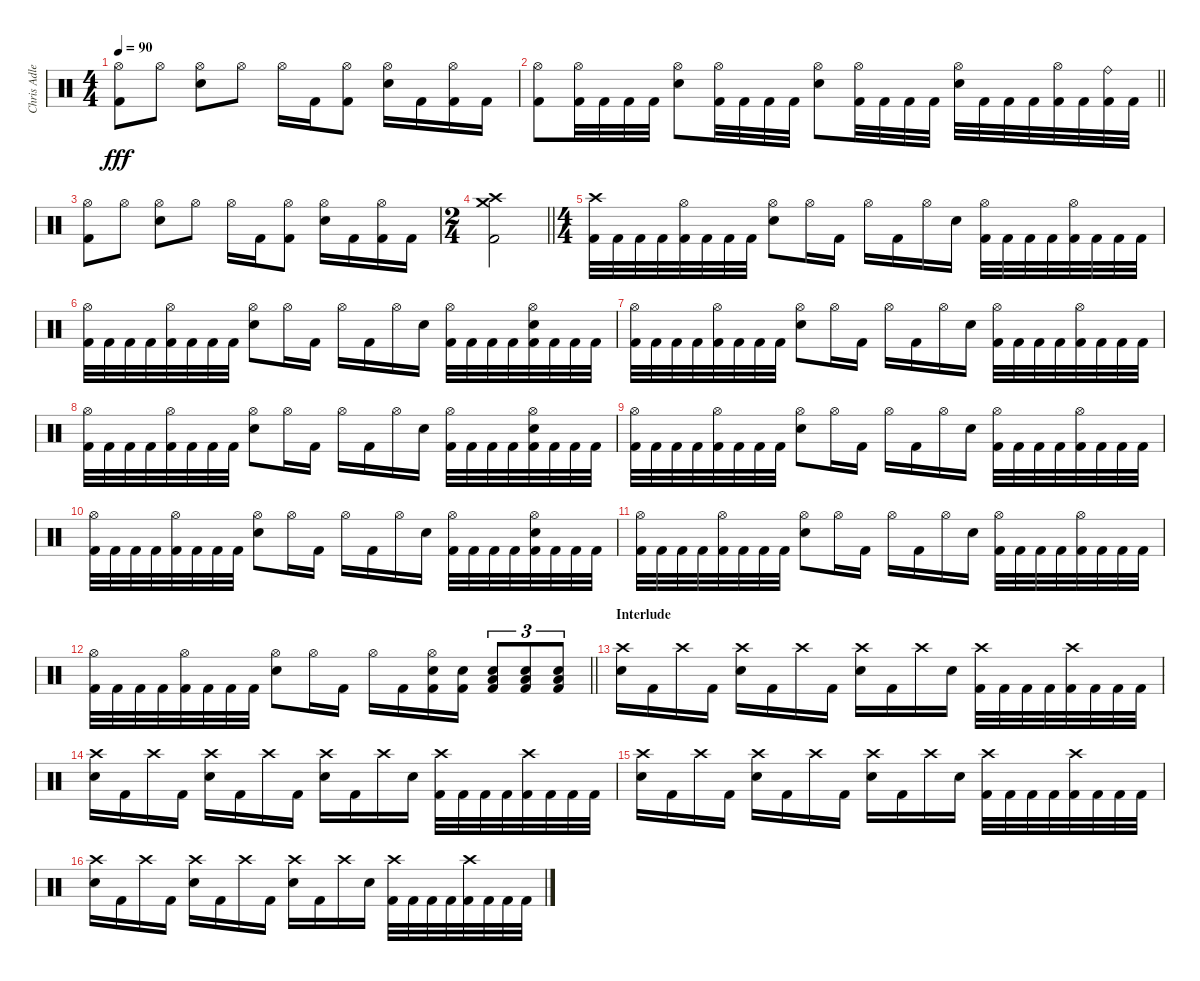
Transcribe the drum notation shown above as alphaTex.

\track ("Chris Adler" "Chris Adle") {instrument percussion}
\staff {score}
\articulation defaults
\ts (4 4)
\tempo 90
\clef neutral
\ks c
("Hi-Hat (open)" "Kick (hit) 2").8{dy fff} "Hi-Hat (open)".8 ("Hi-Hat (open)" "Electric Snare (hit)").8 "Hi-Hat (open)".8 "Hi-Hat (open)".16 "Kick (hit) 2".16 ("Hi-Hat (open)" "Kick (hit) 2").8 ("Hi-Hat (open)" "Electric Snare (hit)").16 "Kick (hit) 2".16 ("Hi-Hat (open)" "Kick (hit) 2").16 "Kick (hit) 2".16 |
\barLineRight lightlight
("Hi-Hat (open)" "Kick (hit) 2").8 ("Hi-Hat (open)" "Kick (hit) 2").32 "Kick (hit) 2".32 "Kick (hit) 2".32 "Kick (hit) 2".32 ("Hi-Hat (open)" "Electric Snare (hit)").8 ("Hi-Hat (open)" "Kick (hit) 2").32 "Kick (hit) 2".32 "Kick (hit) 2".32 "Kick (hit) 2".32 ("Hi-Hat (open)" "Electric Snare (hit)").8 ("Hi-Hat (open)" "Kick (hit) 2").32 "Kick (hit) 2".32 "Kick (hit) 2".32 "Kick (hit) 2".32 ("Hi-Hat (open)" "Electric Snare (hit)").32 "Kick (hit) 2".32 "Kick (hit) 2".32 "Kick (hit) 2".32 ("Hi-Hat (open)" "Kick (hit) 2").32 "Kick (hit) 2".32 ("Ride (bell)" "Kick (hit) 2").32 "Kick (hit) 2".32 |
("Hi-Hat (open)" "Kick (hit) 2").8 "Hi-Hat (open)".8 ("Hi-Hat (open)" "Electric Snare (hit)").8 "Hi-Hat (open)".8 "Hi-Hat (open)".16 "Kick (hit) 2".16 ("Hi-Hat (open)" "Kick (hit) 2").8 ("Hi-Hat (open)" "Electric Snare (hit)").16 "Kick (hit) 2".16 ("Hi-Hat (open)" "Kick (hit) 2").16 "Kick (hit) 2".16 |
\ts (2 4)
\barLineRight lightlight
("Crash medium (hit)" "Crash high (hit)" "Kick (hit) 2").2 |
\ts (4 4)
("Crash high (hit)" "Kick (hit) 2").32 "Kick (hit) 2".32 "Kick (hit) 2".32 "Kick (hit) 2".32 ("Hi-Hat (open)" "Kick (hit) 2").32 "Kick (hit) 2".32 "Kick (hit) 2".32 "Kick (hit) 2".32 ("Hi-Hat (open)" "Electric Snare (hit)").8 "Hi-Hat (open)".16 "Kick (hit) 2".16 "Hi-Hat (open)".16 "Kick (hit) 2".16 "Hi-Hat (open)".16 "Electric Snare (hit)".16 ("Hi-Hat (open)" "Kick (hit) 2").32 "Kick (hit) 2".32 "Kick (hit) 2".32 "Kick (hit) 2".32 ("Hi-Hat (open)" "Kick (hit) 2").32 "Kick (hit) 2".32 "Kick (hit) 2".32 "Kick (hit) 2".32 |
("Hi-Hat (open)" "Kick (hit) 2").32 "Kick (hit) 2".32 "Kick (hit) 2".32 "Kick (hit) 2".32 ("Hi-Hat (open)" "Kick (hit) 2").32 "Kick (hit) 2".32 "Kick (hit) 2".32 "Kick (hit) 2".32 ("Hi-Hat (open)" "Electric Snare (hit)").8 "Hi-Hat (open)".16 "Kick (hit) 2".16 "Hi-Hat (open)".16 "Kick (hit) 2".16 "Hi-Hat (open)".16 "Electric Snare (hit)".16 ("Hi-Hat (open)" "Kick (hit) 2").32 "Kick (hit) 2".32 "Kick (hit) 2".32 "Kick (hit) 2".32 ("Hi-Hat (open)" "Electric Snare (hit)" "Kick (hit) 2").32 "Kick (hit) 2".32 "Kick (hit) 2".32 "Kick (hit) 2".32 |
("Hi-Hat (open)" "Kick (hit) 2").32 "Kick (hit) 2".32 "Kick (hit) 2".32 "Kick (hit) 2".32 ("Hi-Hat (open)" "Kick (hit) 2").32 "Kick (hit) 2".32 "Kick (hit) 2".32 "Kick (hit) 2".32 ("Hi-Hat (open)" "Electric Snare (hit)").8 "Hi-Hat (open)".16 "Kick (hit) 2".16 "Hi-Hat (open)".16 "Kick (hit) 2".16 "Hi-Hat (open)".16 "Electric Snare (hit)".16 ("Hi-Hat (open)" "Kick (hit) 2").32 "Kick (hit) 2".32 "Kick (hit) 2".32 "Kick (hit) 2".32 ("Hi-Hat (open)" "Kick (hit) 2").32 "Kick (hit) 2".32 "Kick (hit) 2".32 "Kick (hit) 2".32 |
("Hi-Hat (open)" "Kick (hit) 2").32 "Kick (hit) 2".32 "Kick (hit) 2".32 "Kick (hit) 2".32 ("Hi-Hat (open)" "Kick (hit) 2").32 "Kick (hit) 2".32 "Kick (hit) 2".32 "Kick (hit) 2".32 ("Hi-Hat (open)" "Electric Snare (hit)").8 "Hi-Hat (open)".16 "Kick (hit) 2".16 "Hi-Hat (open)".16 "Kick (hit) 2".16 "Hi-Hat (open)".16 "Electric Snare (hit)".16 ("Hi-Hat (open)" "Kick (hit) 2").32 "Kick (hit) 2".32 "Kick (hit) 2".32 "Kick (hit) 2".32 ("Hi-Hat (open)" "Electric Snare (hit)" "Kick (hit) 2").32 "Kick (hit) 2".32 "Kick (hit) 2".32 "Kick (hit) 2".32 |
("Hi-Hat (open)" "Kick (hit) 2").32 "Kick (hit) 2".32 "Kick (hit) 2".32 "Kick (hit) 2".32 ("Hi-Hat (open)" "Kick (hit) 2").32 "Kick (hit) 2".32 "Kick (hit) 2".32 "Kick (hit) 2".32 ("Hi-Hat (open)" "Electric Snare (hit)").8 "Hi-Hat (open)".16 "Kick (hit) 2".16 "Hi-Hat (open)".16 "Kick (hit) 2".16 "Hi-Hat (open)".16 "Electric Snare (hit)".16 ("Hi-Hat (open)" "Kick (hit) 2").32 "Kick (hit) 2".32 "Kick (hit) 2".32 "Kick (hit) 2".32 ("Hi-Hat (open)" "Kick (hit) 2").32 "Kick (hit) 2".32 "Kick (hit) 2".32 "Kick (hit) 2".32 |
("Hi-Hat (open)" "Kick (hit) 2").32 "Kick (hit) 2".32 "Kick (hit) 2".32 "Kick (hit) 2".32 ("Hi-Hat (open)" "Kick (hit) 2").32 "Kick (hit) 2".32 "Kick (hit) 2".32 "Kick (hit) 2".32 ("Hi-Hat (open)" "Electric Snare (hit)").8 "Hi-Hat (open)".16 "Kick (hit) 2".16 "Hi-Hat (open)".16 "Kick (hit) 2".16 "Hi-Hat (open)".16 "Electric Snare (hit)".16 ("Hi-Hat (open)" "Kick (hit) 2").32 "Kick (hit) 2".32 "Kick (hit) 2".32 "Kick (hit) 2".32 ("Hi-Hat (open)" "Electric Snare (hit)" "Kick (hit) 2").32 "Kick (hit) 2".32 "Kick (hit) 2".32 "Kick (hit) 2".32 |
("Hi-Hat (open)" "Kick (hit) 2").32 "Kick (hit) 2".32 "Kick (hit) 2".32 "Kick (hit) 2".32 ("Hi-Hat (open)" "Kick (hit) 2").32 "Kick (hit) 2".32 "Kick (hit) 2".32 "Kick (hit) 2".32 ("Hi-Hat (open)" "Electric Snare (hit)").8 "Hi-Hat (open)".16 "Kick (hit) 2".16 "Hi-Hat (open)".16 "Kick (hit) 2".16 "Hi-Hat (open)".16 "Electric Snare (hit)".16 ("Hi-Hat (open)" "Kick (hit) 2").32 "Kick (hit) 2".32 "Kick (hit) 2".32 "Kick (hit) 2".32 ("Hi-Hat (open)" "Kick (hit) 2").32 "Kick (hit) 2".32 "Kick (hit) 2".32 "Kick (hit) 2".32 |
\barLineRight lightlight
("Hi-Hat (open)" "Kick (hit) 2").32 "Kick (hit) 2".32 "Kick (hit) 2".32 "Kick (hit) 2".32 ("Hi-Hat (open)" "Kick (hit) 2").32 "Kick (hit) 2".32 "Kick (hit) 2".32 "Kick (hit) 2".32 ("Hi-Hat (open)" "Electric Snare (hit)").8 "Hi-Hat (open)".16 "Kick (hit) 2".16 "Hi-Hat (open)".16 "Kick (hit) 2".16 ("Hi-Hat (open)" "Electric Snare (hit)" "Kick (hit) 2").16 ("Electric Snare (hit)" "Kick (hit) 2").16 ("Low Floor Tom (hit)" "Electric Snare (hit)" "Kick (hit) 2").8{tu (3 2)} ("Low Floor Tom (hit)" "Electric Snare (hit)" "Kick (hit) 2").8{tu (3 2)} ("Low Floor Tom (hit)" "Electric Snare (hit)" "Kick (hit) 2").8{tu (3 2)} |
\section ("" "Interlude")
("Crash high (hit)" "Electric Snare (hit)").16 "Kick (hit) 2".16 "Crash high (hit)".16 "Kick (hit) 2".16 ("Crash high (hit)" "Electric Snare (hit)").16 "Kick (hit) 2".16 "Crash high (hit)".16 "Kick (hit) 2".16 ("Crash high (hit)" "Electric Snare (hit)").16 "Kick (hit) 2".16 "Crash high (hit)".16 "Electric Snare (hit)".16 ("Crash high (hit)" "Kick (hit) 2").32 "Kick (hit) 2".32 "Kick (hit) 2".32 "Kick (hit) 2".32 ("Crash high (hit)" "Kick (hit) 2").32 "Kick (hit) 2".32 "Kick (hit) 2".32 "Kick (hit) 2".32 |
("Crash high (hit)" "Electric Snare (hit)").16 "Kick (hit) 2".16 "Crash high (hit)".16 "Kick (hit) 2".16 ("Crash high (hit)" "Electric Snare (hit)").16 "Kick (hit) 2".16 "Crash high (hit)".16 "Kick (hit) 2".16 ("Crash high (hit)" "Electric Snare (hit)").16 "Kick (hit) 2".16 "Crash high (hit)".16 "Electric Snare (hit)".16 ("Crash high (hit)" "Kick (hit) 2").32 "Kick (hit) 2".32 "Kick (hit) 2".32 "Kick (hit) 2".32 ("Crash high (hit)" "Kick (hit) 2").32 "Kick (hit) 2".32 "Kick (hit) 2".32 "Kick (hit) 2".32 |
("Crash high (hit)" "Electric Snare (hit)").16 "Kick (hit) 2".16 "Crash high (hit)".16 "Kick (hit) 2".16 ("Crash high (hit)" "Electric Snare (hit)").16 "Kick (hit) 2".16 "Crash high (hit)".16 "Kick (hit) 2".16 ("Crash high (hit)" "Electric Snare (hit)").16 "Kick (hit) 2".16 "Crash high (hit)".16 "Electric Snare (hit)".16 ("Crash high (hit)" "Kick (hit) 2").32 "Kick (hit) 2".32 "Kick (hit) 2".32 "Kick (hit) 2".32 ("Crash high (hit)" "Kick (hit) 2").32 "Kick (hit) 2".32 "Kick (hit) 2".32 "Kick (hit) 2".32 |
("Crash high (hit)" "Electric Snare (hit)").16 "Kick (hit) 2".16 "Crash high (hit)".16 "Kick (hit) 2".16 ("Crash high (hit)" "Electric Snare (hit)").16 "Kick (hit) 2".16 "Crash high (hit)".16 "Kick (hit) 2".16 ("Crash high (hit)" "Electric Snare (hit)").16 "Kick (hit) 2".16 "Crash high (hit)".16 "Electric Snare (hit)".16 ("Crash high (hit)" "Kick (hit) 2").32 "Kick (hit) 2".32 "Kick (hit) 2".32 "Kick (hit) 2".32 ("Crash high (hit)" "Kick (hit) 2").32 "Kick (hit) 2".32 "Kick (hit) 2".32 "Kick (hit) 2".32
